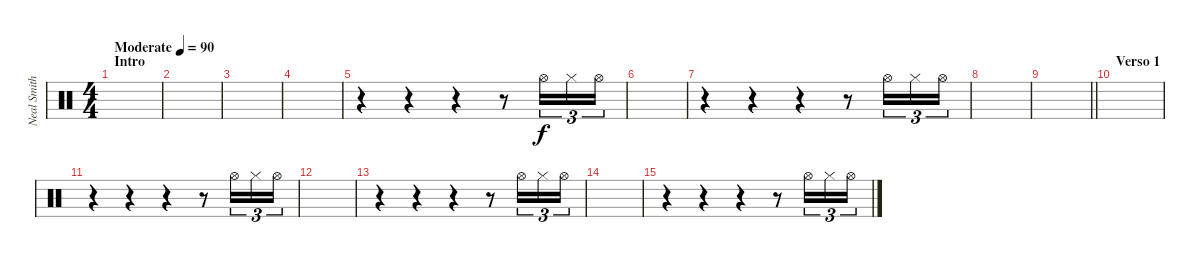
\track ("Neal Smith" "Neal Smith") {instrument percussion}
\staff {score}
\articulation defaults
\ts (4 4)
\section ("" "Intro")
\tempo (90 "Moderate")
\clef neutral
\ks c
|
|
|
|
r.4 r.4 r.4 r.8 "Hi-Hat (open)".16{tu (3 2)} "Hi-Hat (closed)".16{tu (3 2)} "Hi-Hat (open)".16{tu (3 2)} |
|
r.4 r.4 r.4 r.8 "Hi-Hat (open)".16{tu (3 2)} "Hi-Hat (closed)".16{tu (3 2)} "Hi-Hat (open)".16{tu (3 2)} |
|
\barLineRight lightlight
|
\section ("" "Verso 1")
|
r.4 r.4 r.4 r.8 "Hi-Hat (open)".16{tu (3 2)} "Hi-Hat (closed)".16{tu (3 2)} "Hi-Hat (open)".16{tu (3 2)} |
|
r.4 r.4 r.4 r.8 "Hi-Hat (open)".16{tu (3 2)} "Hi-Hat (closed)".16{tu (3 2)} "Hi-Hat (open)".16{tu (3 2)} |
|
r.4 r.4 r.4 r.8 "Hi-Hat (open)".16{tu (3 2)} "Hi-Hat (closed)".16{tu (3 2)} "Hi-Hat (open)".16{tu (3 2)}
